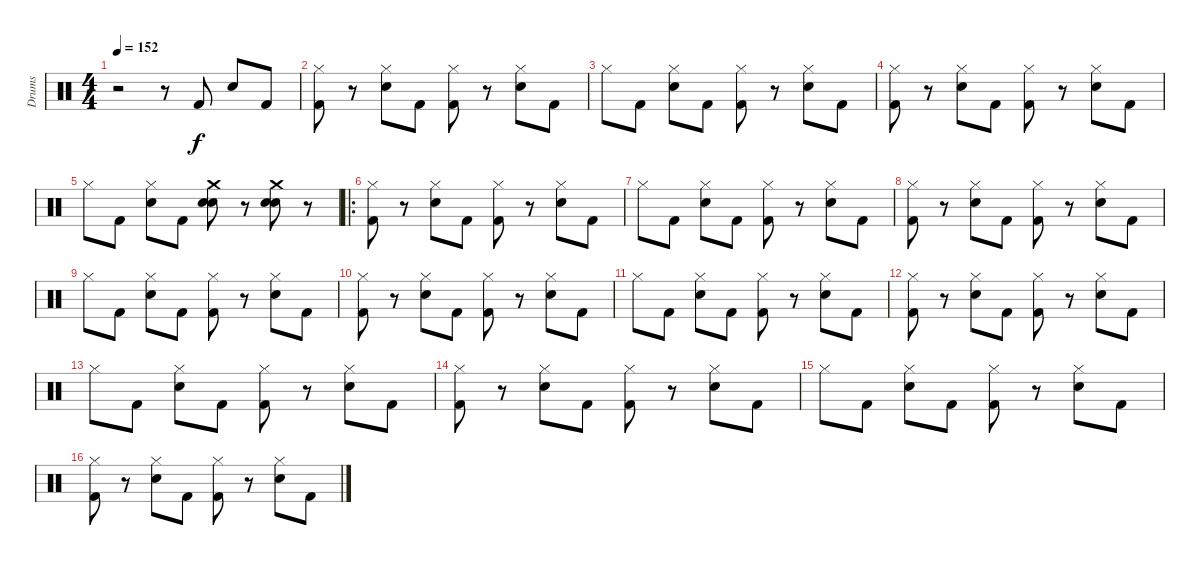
\track ("Drums" "Drums") {instrument percussion}
\staff {score}
\articulation defaults
\ts (4 4)
\tempo 152
\clef neutral
\ks c
r.2{dy f} r.8 "Kick (hit) 2".8 "Electric Snare (hit)".8 "Kick (hit) 2".8 |
("Kick (hit) 2" "Hi-Hat (closed)").8 r.8 ("Electric Snare (hit)" "Hi-Hat (closed)").8 "Kick (hit) 2".8 ("Kick (hit) 2" "Hi-Hat (closed)").8 r.8 ("Electric Snare (hit)" "Hi-Hat (closed)").8 "Kick (hit) 2".8 |
"Hi-Hat (closed)".8 "Kick (hit) 2".8 ("Electric Snare (hit)" "Hi-Hat (closed)").8 "Kick (hit) 2".8 ("Kick (hit) 2" "Hi-Hat (closed)").8 r.8 ("Electric Snare (hit)" "Hi-Hat (closed)").8 "Kick (hit) 2".8 |
("Kick (hit) 2" "Hi-Hat (closed)").8 r.8 ("Electric Snare (hit)" "Hi-Hat (closed)").8 "Kick (hit) 2".8 ("Kick (hit) 2" "Hi-Hat (closed)").8 r.8 ("Electric Snare (hit)" "Hi-Hat (closed)").8 "Kick (hit) 2".8 |
"Hi-Hat (closed)".8 "Kick (hit) 2".8 ("Electric Snare (hit)" "Hi-Hat (closed)").8 "Kick (hit) 2".8 ("Electric Snare (hit)" "Electric Snare (hit)" "Crash medium (hit)").8 r.8 ("Electric Snare (hit)" "Electric Snare (hit)" "Crash medium (hit)").8 r.8 |
\ro
("Kick (hit) 2" "Hi-Hat (closed)").8 r.8 ("Electric Snare (hit)" "Hi-Hat (closed)").8 "Kick (hit) 2".8 ("Kick (hit) 2" "Hi-Hat (closed)").8 r.8 ("Electric Snare (hit)" "Hi-Hat (closed)").8 "Kick (hit) 2".8 |
"Hi-Hat (closed)".8 "Kick (hit) 2".8 ("Electric Snare (hit)" "Hi-Hat (closed)").8 "Kick (hit) 2".8 ("Kick (hit) 2" "Hi-Hat (closed)").8 r.8 ("Electric Snare (hit)" "Hi-Hat (closed)").8 "Kick (hit) 2".8 |
("Kick (hit) 2" "Hi-Hat (closed)").8 r.8 ("Electric Snare (hit)" "Hi-Hat (closed)").8 "Kick (hit) 2".8 ("Kick (hit) 2" "Hi-Hat (closed)").8 r.8 ("Electric Snare (hit)" "Hi-Hat (closed)").8 "Kick (hit) 2".8 |
"Hi-Hat (closed)".8 "Kick (hit) 2".8 ("Electric Snare (hit)" "Hi-Hat (closed)").8 "Kick (hit) 2".8 ("Kick (hit) 2" "Hi-Hat (closed)").8 r.8 ("Electric Snare (hit)" "Hi-Hat (closed)").8 "Kick (hit) 2".8 |
("Kick (hit) 2" "Hi-Hat (closed)").8 r.8 ("Electric Snare (hit)" "Hi-Hat (closed)").8 "Kick (hit) 2".8 ("Kick (hit) 2" "Hi-Hat (closed)").8 r.8 ("Electric Snare (hit)" "Hi-Hat (closed)").8 "Kick (hit) 2".8 |
"Hi-Hat (closed)".8 "Kick (hit) 2".8 ("Electric Snare (hit)" "Hi-Hat (closed)").8 "Kick (hit) 2".8 ("Kick (hit) 2" "Hi-Hat (closed)").8 r.8 ("Electric Snare (hit)" "Hi-Hat (closed)").8 "Kick (hit) 2".8 |
("Kick (hit) 2" "Hi-Hat (closed)").8 r.8 ("Electric Snare (hit)" "Hi-Hat (closed)").8 "Kick (hit) 2".8 ("Kick (hit) 2" "Hi-Hat (closed)").8 r.8 ("Electric Snare (hit)" "Hi-Hat (closed)").8 "Kick (hit) 2".8 |
"Hi-Hat (closed)".8 "Kick (hit) 2".8 ("Electric Snare (hit)" "Hi-Hat (closed)").8 "Kick (hit) 2".8 ("Kick (hit) 2" "Hi-Hat (closed)").8 r.8 ("Electric Snare (hit)" "Hi-Hat (closed)").8 "Kick (hit) 2".8 |
("Kick (hit) 2" "Hi-Hat (closed)").8 r.8 ("Electric Snare (hit)" "Hi-Hat (closed)").8 "Kick (hit) 2".8 ("Kick (hit) 2" "Hi-Hat (closed)").8 r.8 ("Electric Snare (hit)" "Hi-Hat (closed)").8 "Kick (hit) 2".8 |
"Hi-Hat (closed)".8 "Kick (hit) 2".8 ("Electric Snare (hit)" "Hi-Hat (closed)").8 "Kick (hit) 2".8 ("Kick (hit) 2" "Hi-Hat (closed)").8 r.8 ("Electric Snare (hit)" "Hi-Hat (closed)").8 "Kick (hit) 2".8 |
("Kick (hit) 2" "Hi-Hat (closed)").8 r.8 ("Electric Snare (hit)" "Hi-Hat (closed)").8 "Kick (hit) 2".8 ("Kick (hit) 2" "Hi-Hat (closed)").8 r.8 ("Electric Snare (hit)" "Hi-Hat (closed)").8 "Kick (hit) 2".8
